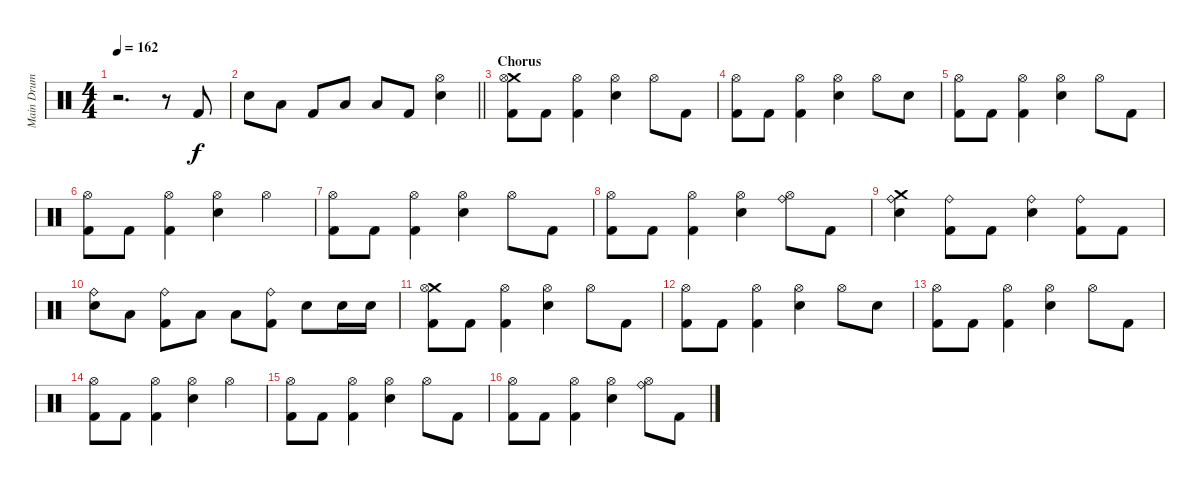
\track ("Main Drum Track" "Main Drum ") {instrument percussion}
\staff {score}
\articulation defaults
\ts (4 4)
\tempo 162
\clef neutral
\ks c
r.2{d dy f} r.8 "Kick (hit) 2".8 |
\barLineRight lightlight "Electric Snare (hit)".8 "Low Floor Tom (hit)".8 "Kick (hit) 2".8 "Low Tom (hit)".8 "Low Floor Tom (hit)".8 "Kick (hit) 2".8
("Hi-Hat (open)" "Electric Snare (hit)").4 |
\section ("" "Chorus")
("Crash medium (hit)" "Hi-Hat (open)" "Kick (hit) 2").8 "Kick (hit) 2".8 ("Hi-Hat (open)" "Kick (hit) 2").4 ("Hi-Hat (open)" "Electric Snare (hit)").4 "Hi-Hat (open)".8 "Kick (hit) 2".8 |
("Hi-Hat (open)" "Kick (hit) 2").8 "Kick (hit) 2".8 ("Hi-Hat (open)" "Kick (hit) 2").4 ("Hi-Hat (open)" "Electric Snare (hit)").4 "Hi-Hat (open)".8 "Electric Snare (hit)".8 |
("Hi-Hat (open)" "Kick (hit) 2").8 "Kick (hit) 2".8 ("Hi-Hat (open)" "Kick (hit) 2").4 ("Hi-Hat (open)" "Electric Snare (hit)").4 "Hi-Hat (open)".8 "Kick (hit) 2".8 |
("Hi-Hat (open)" "Kick (hit) 2").8 "Kick (hit) 2".8 ("Hi-Hat (open)" "Kick (hit) 2").4 ("Hi-Hat (open)" "Electric Snare (hit)").4 "Hi-Hat (open)".4 |
("Hi-Hat (open)" "Kick (hit) 2").8 "Kick (hit) 2".8 ("Hi-Hat (open)" "Kick (hit) 2").4 ("Hi-Hat (open)" "Electric Snare (hit)").4 "Hi-Hat (open)".8 "Kick (hit) 2".8 |
("Hi-Hat (open)" "Kick (hit) 2").8 "Kick (hit) 2".8 ("Hi-Hat (open)" "Kick (hit) 2").4 ("Hi-Hat (open)" "Electric Snare (hit)").4 ("Ride (bell)" "Hi-Hat (open)").8 "Kick (hit) 2".8 |
("Ride (bell)" "Crash medium (hit)" "Electric Snare (hit)").4 ("Ride (bell)" "Kick (hit) 2").8 "Kick (hit) 2".8 ("Ride (bell)" "Electric Snare (hit)").4 ("Ride (bell)" "Kick (hit) 2").8 "Kick (hit) 2".8 |
("Ride (bell)" "Electric Snare (hit)").8 "Low Floor Tom (hit)".8 ("Ride (bell)" "Kick (hit) 2").8 "Low Tom (hit)".8 "Low Floor Tom (hit)".8 ("Ride (bell)" "Kick (hit) 2").8 "Electric Snare (hit)".8 "Electric Snare (hit)".16 "Electric Snare (hit)".16 |
("Crash medium (hit)" "Hi-Hat (open)" "Kick (hit) 2").8 "Kick (hit) 2".8 ("Hi-Hat (open)" "Kick (hit) 2").4 ("Hi-Hat (open)" "Electric Snare (hit)").4 "Hi-Hat (open)".8 "Kick (hit) 2".8 |
("Hi-Hat (open)" "Kick (hit) 2").8 "Kick (hit) 2".8 ("Hi-Hat (open)" "Kick (hit) 2").4 ("Hi-Hat (open)" "Electric Snare (hit)").4 "Hi-Hat (open)".8 "Electric Snare (hit)".8 |
("Hi-Hat (open)" "Kick (hit) 2").8 "Kick (hit) 2".8 ("Hi-Hat (open)" "Kick (hit) 2").4 ("Hi-Hat (open)" "Electric Snare (hit)").4 "Hi-Hat (open)".8 "Kick (hit) 2".8 |
("Hi-Hat (open)" "Kick (hit) 2").8 "Kick (hit) 2".8 ("Hi-Hat (open)" "Kick (hit) 2").4 ("Hi-Hat (open)" "Electric Snare (hit)").4 "Hi-Hat (open)".4 |
("Hi-Hat (open)" "Kick (hit) 2").8 "Kick (hit) 2".8 ("Hi-Hat (open)" "Kick (hit) 2").4 ("Hi-Hat (open)" "Electric Snare (hit)").4 "Hi-Hat (open)".8 "Kick (hit) 2".8 |
("Hi-Hat (open)" "Kick (hit) 2").8 "Kick (hit) 2".8 ("Hi-Hat (open)" "Kick (hit) 2").4 ("Hi-Hat (open)" "Electric Snare (hit)").4 ("Ride (bell)" "Hi-Hat (open)").8 "Kick (hit) 2".8
